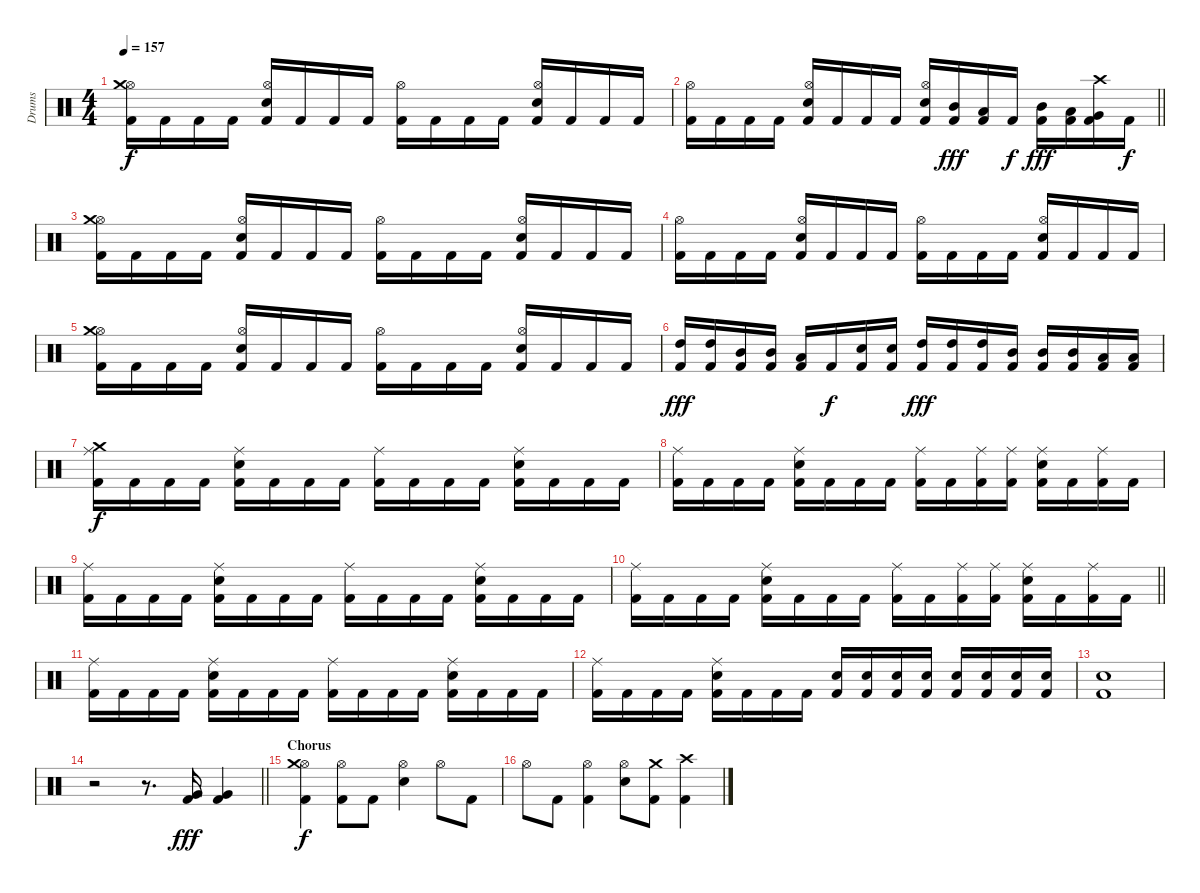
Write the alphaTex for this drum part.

\track ("Drums" "Drums") {instrument percussion}
\staff {score}
\articulation defaults
\ts (4 4)
\tempo 157
\clef neutral
\ks c
("Kick (hit) 2" "Hi-Hat (open)" "Crash medium (hit)").16{dy f} "Kick (hit) 2".16 "Kick (hit) 2".16 "Kick (hit) 2".16 ("Kick (hit) 2" "Electric Snare (hit)" "Hi-Hat (open)").16 "Kick (hit) 2".16 "Kick (hit) 2".16 "Kick (hit) 2".16 ("Kick (hit) 2" "Hi-Hat (open)").16 "Kick (hit) 2".16 "Kick (hit) 2".16 "Kick (hit) 2".16 ("Kick (hit) 2" "Electric Snare (hit)" "Hi-Hat (open)").16 "Kick (hit) 2".16 "Kick (hit) 2".16 "Kick (hit) 2".16 |
\barLineRight lightlight
("Kick (hit) 2" "Hi-Hat (open)").16 "Kick (hit) 2".16 "Kick (hit) 2".16 "Kick (hit) 2".16 ("Kick (hit) 2" "Electric Snare (hit)" "Hi-Hat (open)").16 "Kick (hit) 2".16 "Kick (hit) 2".16 "Kick (hit) 2".16 ("Kick (hit) 2" "Electric Snare (hit)" "Hi-Hat (open)").16 ("Kick (hit) 2" "Mid Tom (hit)").16{dy fff} ("Kick (hit) 2" "Low Tom (hit)").16 "Kick (hit) 2".16{dy f} ("Kick (hit) 2" "Mid Tom (hit)").16{dy fff} ("Kick (hit) 2" "Low Tom (hit)").16 ("Kick (hit) 2" "Very Low Tom (hit)" "Crash high (hit)").16 "Kick (hit) 2".16{dy f} |
("Kick (hit) 2" "Hi-Hat (open)" "Crash medium (hit)").16 "Kick (hit) 2".16 "Kick (hit) 2".16 "Kick (hit) 2".16 ("Kick (hit) 2" "Electric Snare (hit)" "Hi-Hat (open)").16 "Kick (hit) 2".16 "Kick (hit) 2".16 "Kick (hit) 2".16 ("Kick (hit) 2" "Hi-Hat (open)").16 "Kick (hit) 2".16 "Kick (hit) 2".16 "Kick (hit) 2".16 ("Kick (hit) 2" "Electric Snare (hit)" "Hi-Hat (open)").16 "Kick (hit) 2".16 "Kick (hit) 2".16 "Kick (hit) 2".16 |
("Kick (hit) 2" "Hi-Hat (open)").16 "Kick (hit) 2".16 "Kick (hit) 2".16 "Kick (hit) 2".16 ("Kick (hit) 2" "Electric Snare (hit)" "Hi-Hat (open)").16 "Kick (hit) 2".16 "Kick (hit) 2".16 "Kick (hit) 2".16 ("Kick (hit) 2" "Hi-Hat (open)").16 "Kick (hit) 2".16 "Kick (hit) 2".16 "Kick (hit) 2".16 ("Kick (hit) 2" "Electric Snare (hit)" "Hi-Hat (open)").16 "Kick (hit) 2".16 "Kick (hit) 2".16 "Kick (hit) 2".16 |
("Kick (hit) 2" "Hi-Hat (open)" "Crash medium (hit)").16 "Kick (hit) 2".16 "Kick (hit) 2".16 "Kick (hit) 2".16 ("Kick (hit) 2" "Electric Snare (hit)" "Hi-Hat (open)").16 "Kick (hit) 2".16 "Kick (hit) 2".16 "Kick (hit) 2".16 ("Kick (hit) 2" "Hi-Hat (open)").16 "Kick (hit) 2".16 "Kick (hit) 2".16 "Kick (hit) 2".16 ("Kick (hit) 2" "Electric Snare (hit)" "Hi-Hat (open)").16 "Kick (hit) 2".16 "Kick (hit) 2".16 "Kick (hit) 2".16 |
("Kick (hit) 2" "High Tom (hit)").16{dy fff} ("Kick (hit) 2" "High Tom (hit)").16 ("Kick (hit) 2" "Mid Tom (hit)").16 ("Kick (hit) 2" "Mid Tom (hit)").16 ("Kick (hit) 2" "Low Tom (hit)").16 "Kick (hit) 2".16{dy f} ("Kick (hit) 2" "Electric Snare (hit)").16 ("Kick (hit) 2" "Electric Snare (hit)").16 ("Kick (hit) 2" "High Tom (hit)").16{dy fff} ("Kick (hit) 2" "High Tom (hit)").16 ("Kick (hit) 2" "High Tom (hit)").16 ("Kick (hit) 2" "Mid Tom (hit)").16 ("Kick (hit) 2" "Mid Tom (hit)").16 ("Kick (hit) 2" "Mid Tom (hit)").16 ("Kick (hit) 2" "Low Tom (hit)").16 ("Kick (hit) 2" "Low Tom (hit)").16 |
("Kick (hit) 2" "Ride (middle)" "Crash medium (hit)").16{dy f} "Kick (hit) 2".16 "Kick (hit) 2".16 "Kick (hit) 2".16 ("Kick (hit) 2" "Electric Snare (hit)" "Ride (middle)").16 "Kick (hit) 2".16 "Kick (hit) 2".16 "Kick (hit) 2".16 ("Kick (hit) 2" "Ride (middle)").16 "Kick (hit) 2".16 "Kick (hit) 2".16 "Kick (hit) 2".16 ("Kick (hit) 2" "Electric Snare (hit)" "Ride (middle)").16 "Kick (hit) 2".16 "Kick (hit) 2".16 "Kick (hit) 2".16 |
("Kick (hit) 2" "Ride (middle)").16 "Kick (hit) 2".16 "Kick (hit) 2".16 "Kick (hit) 2".16 ("Kick (hit) 2" "Electric Snare (hit)" "Ride (middle)").16 "Kick (hit) 2".16 "Kick (hit) 2".16 "Kick (hit) 2".16 ("Kick (hit) 2" "Ride (middle)").16 "Kick (hit) 2".16 ("Kick (hit) 2" "Ride (middle)").16 ("Kick (hit) 2" "Ride (middle)").16 ("Kick (hit) 2" "Electric Snare (hit)" "Ride (middle)").16 "Kick (hit) 2".16 ("Kick (hit) 2" "Ride (middle)").16 "Kick (hit) 2".16 |
("Kick (hit) 2" "Ride (middle)").16 "Kick (hit) 2".16 "Kick (hit) 2".16 "Kick (hit) 2".16 ("Kick (hit) 2" "Electric Snare (hit)" "Ride (middle)").16 "Kick (hit) 2".16 "Kick (hit) 2".16 "Kick (hit) 2".16 ("Kick (hit) 2" "Ride (middle)").16 "Kick (hit) 2".16 "Kick (hit) 2".16 "Kick (hit) 2".16 ("Kick (hit) 2" "Electric Snare (hit)" "Ride (middle)").16 "Kick (hit) 2".16 "Kick (hit) 2".16 "Kick (hit) 2".16 |
\barLineRight lightlight
("Kick (hit) 2" "Ride (middle)").16 "Kick (hit) 2".16 "Kick (hit) 2".16 "Kick (hit) 2".16 ("Kick (hit) 2" "Electric Snare (hit)" "Ride (middle)").16 "Kick (hit) 2".16 "Kick (hit) 2".16 "Kick (hit) 2".16 ("Kick (hit) 2" "Ride (middle)").16 "Kick (hit) 2".16 ("Kick (hit) 2" "Ride (middle)").16 ("Kick (hit) 2" "Ride (middle)").16 ("Kick (hit) 2" "Electric Snare (hit)" "Ride (middle)").16 "Kick (hit) 2".16 ("Kick (hit) 2" "Ride (middle)").16 "Kick (hit) 2".16 |
("Kick (hit) 2" "Ride (middle)").16 "Kick (hit) 2".16 "Kick (hit) 2".16 "Kick (hit) 2".16 ("Kick (hit) 2" "Electric Snare (hit)" "Ride (middle)").16 "Kick (hit) 2".16 "Kick (hit) 2".16 "Kick (hit) 2".16 ("Kick (hit) 2" "Ride (middle)").16 "Kick (hit) 2".16 "Kick (hit) 2".16 "Kick (hit) 2".16 ("Kick (hit) 2" "Electric Snare (hit)" "Ride (middle)").16 "Kick (hit) 2".16 "Kick (hit) 2".16 "Kick (hit) 2".16 |
("Kick (hit) 2" "Ride (middle)").16 "Kick (hit) 2".16 "Kick (hit) 2".16 "Kick (hit) 2".16 ("Kick (hit) 2" "Electric Snare (hit)" "Ride (middle)").16 "Kick (hit) 2".16 "Kick (hit) 2".16 "Kick (hit) 2".16 ("Kick (hit) 2" "Electric Snare (hit)").16 ("Kick (hit) 2" "Electric Snare (hit)").16 ("Kick (hit) 2" "Electric Snare (hit)").16 ("Kick (hit) 2" "Electric Snare (hit)").16 ("Kick (hit) 2" "Electric Snare (hit)").16 ("Kick (hit) 2" "Electric Snare (hit)").16 ("Kick (hit) 2" "Electric Snare (hit)").16 ("Kick (hit) 2" "Electric Snare (hit)").16 |
("Kick (hit) 2" "Electric Snare (hit)").1 |
\barLineRight lightlight
r.2 r.8{d} ("Kick (hit) 2" "Very Low Tom (hit)").16{dy fff} ("Kick (hit) 2" "Very Low Tom (hit)").4 |
\section ("" "Chorus")
("Kick (hit) 2" "Hi-Hat (open)" "Crash medium (hit)").4{dy f} ("Kick (hit) 2" "Hi-Hat (open)").8 "Kick (hit) 2".8 ("Electric Snare (hit)" "Hi-Hat (open)").4 "Hi-Hat (open)".8 "Kick (hit) 2".8 |
"Hi-Hat (open)".8 "Kick (hit) 2".8 ("Kick (hit) 2" "Hi-Hat (open)").4 ("Electric Snare (hit)" "Hi-Hat (open)").8 ("Kick (hit) 2" "Crash medium (hit)").8 ("Kick (hit) 2" "Crash high (hit)").4
